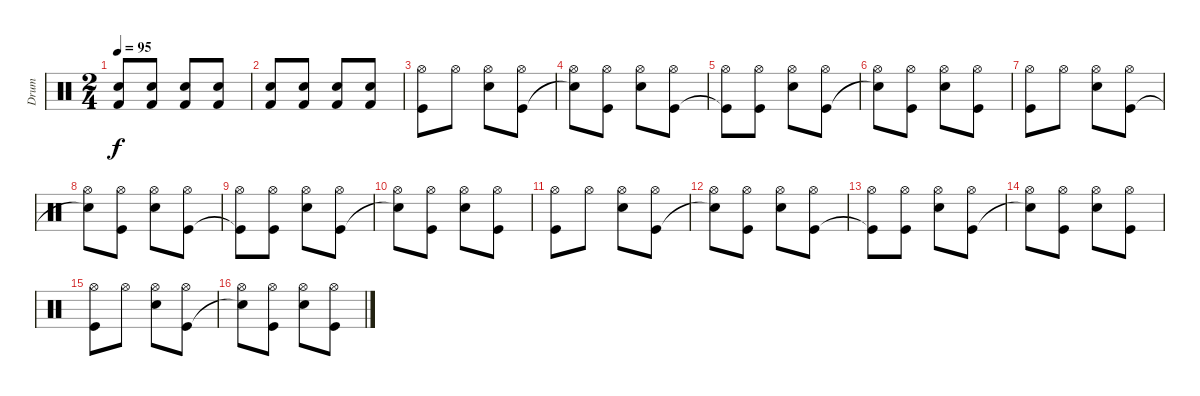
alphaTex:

\track ("Drum" "Drum") {instrument percussion}
\staff {score}
\articulation defaults
\ts (2 4)
\tempo 95
\clef neutral
\ks c
("Electric Snare (hit)" "Kick (hit) 2").8{dy f} ("Electric Snare (hit)" "Kick (hit) 2").8 ("Electric Snare (hit)" "Kick (hit) 2").8 ("Electric Snare (hit)" "Kick (hit) 2").8 |
("Electric Snare (hit)" "Kick (hit) 2").8 ("Electric Snare (hit)" "Kick (hit) 2").8 ("Electric Snare (hit)" "Kick (hit) 2").8 ("Electric Snare (hit)" "Kick (hit) 2").8 |
("Kick (hit)" "Hi-Hat (open)").8 "Hi-Hat (open)".8 ("Electric Snare (hit)" "Hi-Hat (open)").8 ("Kick (hit)" "Hi-Hat (open)").8 |
("Snare (hit)"{t} "Hi-Hat (open)").8 ("Kick (hit)" "Hi-Hat (open)").8 ("Electric Snare (hit)" "Hi-Hat (open)").8 ("Kick (hit)" "Hi-Hat (open)").8 |
("Kick (hit)"{t} "Hi-Hat (open)").8 ("Kick (hit)" "Hi-Hat (open)").8 ("Electric Snare (hit)" "Hi-Hat (open)").8 ("Kick (hit)" "Hi-Hat (open)").8 |
("Snare (hit)"{t} "Hi-Hat (open)").8 ("Kick (hit)" "Hi-Hat (open)").8 ("Electric Snare (hit)" "Hi-Hat (open)").8 ("Kick (hit)" "Hi-Hat (open)").8 |
("Kick (hit)" "Hi-Hat (open)").8 "Hi-Hat (open)".8 ("Electric Snare (hit)" "Hi-Hat (open)").8 ("Kick (hit)" "Hi-Hat (open)").8 |
("Snare (hit)"{t} "Hi-Hat (open)").8 ("Kick (hit)" "Hi-Hat (open)").8 ("Electric Snare (hit)" "Hi-Hat (open)").8 ("Kick (hit)" "Hi-Hat (open)").8 |
("Kick (hit)"{t} "Hi-Hat (open)").8 ("Kick (hit)" "Hi-Hat (open)").8 ("Electric Snare (hit)" "Hi-Hat (open)").8 ("Kick (hit)" "Hi-Hat (open)").8 |
("Snare (hit)"{t} "Hi-Hat (open)").8 ("Kick (hit)" "Hi-Hat (open)").8 ("Electric Snare (hit)" "Hi-Hat (open)").8 ("Kick (hit)" "Hi-Hat (open)").8 |
("Kick (hit)" "Hi-Hat (open)").8 "Hi-Hat (open)".8 ("Electric Snare (hit)" "Hi-Hat (open)").8 ("Kick (hit)" "Hi-Hat (open)").8 |
("Snare (hit)"{t} "Hi-Hat (open)").8 ("Kick (hit)" "Hi-Hat (open)").8 ("Electric Snare (hit)" "Hi-Hat (open)").8 ("Kick (hit)" "Hi-Hat (open)").8 |
("Kick (hit)"{t} "Hi-Hat (open)").8 ("Kick (hit)" "Hi-Hat (open)").8 ("Electric Snare (hit)" "Hi-Hat (open)").8 ("Kick (hit)" "Hi-Hat (open)").8 |
("Snare (hit)"{t} "Hi-Hat (open)").8 ("Kick (hit)" "Hi-Hat (open)").8 ("Electric Snare (hit)" "Hi-Hat (open)").8 ("Kick (hit)" "Hi-Hat (open)").8 |
("Kick (hit)" "Hi-Hat (open)").8 "Hi-Hat (open)".8 ("Electric Snare (hit)" "Hi-Hat (open)").8 ("Kick (hit)" "Hi-Hat (open)").8 |
("Snare (hit)"{t} "Hi-Hat (open)").8 ("Kick (hit)" "Hi-Hat (open)").8 ("Electric Snare (hit)" "Hi-Hat (open)").8 ("Kick (hit)" "Hi-Hat (open)").8
